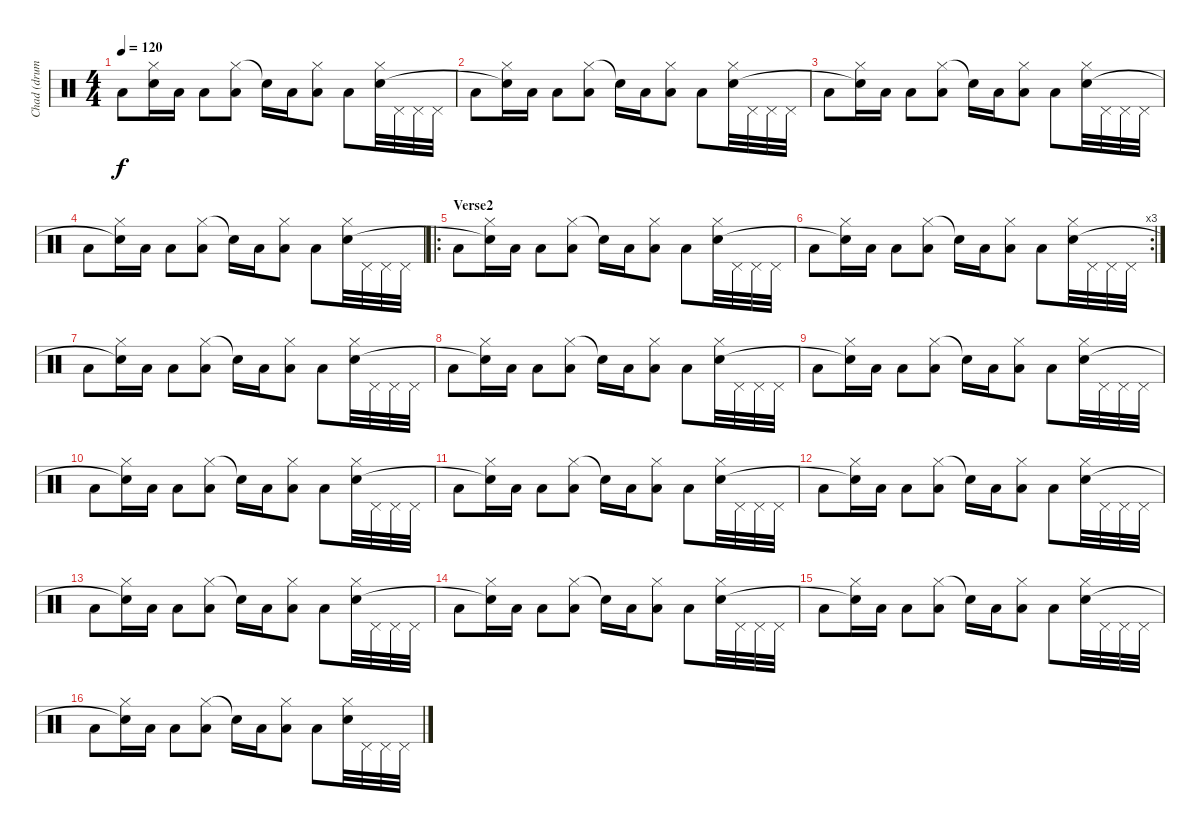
\track ("Chad (drums)" "Chad (drum") {instrument percussion}
\staff {score}
\articulation defaults
\ts (4 4)
\tempo 120
\clef neutral
\ks c "Low Tom (hit)".8{dy f}
("Hi-Hat (closed)" "Snare (hit)"{t}).16 "Low Tom (hit)".16 "Low Floor Tom (hit)".8 ("Hi-Hat (closed)" "Low Tom (hit)").8 "Snare (hit)"{t}.16 "Low Tom (hit)".16 ("Hi-Hat (closed)" "Low Floor Tom (hit)").8 "Low Tom (hit)".8 ("Hi-Hat (closed)" "Snare (hit) 2").32 "Pedal Hi-Hat (hit)".32 "Pedal Hi-Hat (hit)".32 "Pedal Hi-Hat (hit)".32 |
"Low Tom (hit)".8 ("Hi-Hat (closed)" "Snare (hit)"{t}).16 "Low Tom (hit)".16 "Low Floor Tom (hit)".8 ("Hi-Hat (closed)" "Low Tom (hit)").8 "Snare (hit)"{t}.16 "Low Tom (hit)".16 ("Hi-Hat (closed)" "Low Floor Tom (hit)").8 "Low Tom (hit)".8 ("Hi-Hat (closed)" "Snare (hit) 2").32 "Pedal Hi-Hat (hit)".32 "Pedal Hi-Hat (hit)".32 "Pedal Hi-Hat (hit)".32 |
"Low Tom (hit)".8 ("Hi-Hat (closed)" "Snare (hit)"{t}).16 "Low Tom (hit)".16 "Low Floor Tom (hit)".8 ("Hi-Hat (closed)" "Low Tom (hit)").8 "Snare (hit)"{t}.16 "Low Tom (hit)".16 ("Hi-Hat (closed)" "Low Floor Tom (hit)").8 "Low Tom (hit)".8 ("Hi-Hat (closed)" "Snare (hit) 2").32 "Pedal Hi-Hat (hit)".32 "Pedal Hi-Hat (hit)".32 "Pedal Hi-Hat (hit)".32 |
"Low Tom (hit)".8 ("Hi-Hat (closed)" "Snare (hit)"{t}).16 "Low Tom (hit)".16 "Low Floor Tom (hit)".8 ("Hi-Hat (closed)" "Low Tom (hit)").8 "Snare (hit)"{t}.16 "Low Tom (hit)".16 ("Hi-Hat (closed)" "Low Floor Tom (hit)").8 "Low Tom (hit)".8 ("Hi-Hat (closed)" "Snare (hit) 2").32 "Pedal Hi-Hat (hit)".32 "Pedal Hi-Hat (hit)".32 "Pedal Hi-Hat (hit)".32 |
\ro
\section ("" "Verse2")
"Low Tom (hit)".8 ("Hi-Hat (closed)" "Snare (hit)"{t}).16 "Low Tom (hit)".16 "Low Floor Tom (hit)".8 ("Hi-Hat (closed)" "Low Tom (hit)").8 "Snare (hit)"{t}.16 "Low Tom (hit)".16 ("Hi-Hat (closed)" "Low Floor Tom (hit)").8 "Low Tom (hit)".8 ("Hi-Hat (closed)" "Snare (hit) 2").32 "Pedal Hi-Hat (hit)".32 "Pedal Hi-Hat (hit)".32 "Pedal Hi-Hat (hit)".32 |
\rc 3 "Low Tom (hit)".8
("Hi-Hat (closed)" "Snare (hit)"{t}).16 "Low Tom (hit)".16 "Low Floor Tom (hit)".8 ("Hi-Hat (closed)" "Low Tom (hit)").8 "Snare (hit)"{t}.16 "Low Tom (hit)".16 ("Hi-Hat (closed)" "Low Floor Tom (hit)").8 "Low Tom (hit)".8 ("Hi-Hat (closed)" "Snare (hit) 2").32 "Pedal Hi-Hat (hit)".32 "Pedal Hi-Hat (hit)".32 "Pedal Hi-Hat (hit)".32 |
"Low Tom (hit)".8 ("Hi-Hat (closed)" "Snare (hit)"{t}).16 "Low Tom (hit)".16 "Low Floor Tom (hit)".8 ("Hi-Hat (closed)" "Low Tom (hit)").8 "Snare (hit)"{t}.16 "Low Tom (hit)".16 ("Hi-Hat (closed)" "Low Floor Tom (hit)").8 "Low Tom (hit)".8 ("Hi-Hat (closed)" "Snare (hit) 2").32 "Pedal Hi-Hat (hit)".32 "Pedal Hi-Hat (hit)".32 "Pedal Hi-Hat (hit)".32 |
"Low Tom (hit)".8 ("Hi-Hat (closed)" "Snare (hit)"{t}).16 "Low Tom (hit)".16 "Low Floor Tom (hit)".8 ("Hi-Hat (closed)" "Low Tom (hit)").8 "Snare (hit)"{t}.16 "Low Tom (hit)".16 ("Hi-Hat (closed)" "Low Floor Tom (hit)").8 "Low Tom (hit)".8 ("Hi-Hat (closed)" "Snare (hit) 2").32 "Pedal Hi-Hat (hit)".32 "Pedal Hi-Hat (hit)".32 "Pedal Hi-Hat (hit)".32 |
"Low Tom (hit)".8 ("Hi-Hat (closed)" "Snare (hit)"{t}).16 "Low Tom (hit)".16 "Low Floor Tom (hit)".8 ("Hi-Hat (closed)" "Low Tom (hit)").8 "Snare (hit)"{t}.16 "Low Tom (hit)".16 ("Hi-Hat (closed)" "Low Floor Tom (hit)").8 "Low Tom (hit)".8 ("Hi-Hat (closed)" "Snare (hit) 2").32 "Pedal Hi-Hat (hit)".32 "Pedal Hi-Hat (hit)".32 "Pedal Hi-Hat (hit)".32 |
"Low Tom (hit)".8 ("Hi-Hat (closed)" "Snare (hit)"{t}).16 "Low Tom (hit)".16 "Low Floor Tom (hit)".8 ("Hi-Hat (closed)" "Low Tom (hit)").8 "Snare (hit)"{t}.16 "Low Tom (hit)".16 ("Hi-Hat (closed)" "Low Floor Tom (hit)").8 "Low Tom (hit)".8 ("Hi-Hat (closed)" "Snare (hit) 2").32 "Pedal Hi-Hat (hit)".32 "Pedal Hi-Hat (hit)".32 "Pedal Hi-Hat (hit)".32 |
"Low Tom (hit)".8 ("Hi-Hat (closed)" "Snare (hit)"{t}).16 "Low Tom (hit)".16 "Low Floor Tom (hit)".8 ("Hi-Hat (closed)" "Low Tom (hit)").8 "Snare (hit)"{t}.16 "Low Tom (hit)".16 ("Hi-Hat (closed)" "Low Floor Tom (hit)").8 "Low Tom (hit)".8 ("Hi-Hat (closed)" "Snare (hit) 2").32 "Pedal Hi-Hat (hit)".32 "Pedal Hi-Hat (hit)".32 "Pedal Hi-Hat (hit)".32 |
"Low Tom (hit)".8 ("Hi-Hat (closed)" "Snare (hit)"{t}).16 "Low Tom (hit)".16 "Low Floor Tom (hit)".8 ("Hi-Hat (closed)" "Low Tom (hit)").8 "Snare (hit)"{t}.16 "Low Tom (hit)".16 ("Hi-Hat (closed)" "Low Floor Tom (hit)").8 "Low Tom (hit)".8 ("Hi-Hat (closed)" "Snare (hit) 2").32 "Pedal Hi-Hat (hit)".32 "Pedal Hi-Hat (hit)".32 "Pedal Hi-Hat (hit)".32 |
"Low Tom (hit)".8 ("Hi-Hat (closed)" "Snare (hit)"{t}).16 "Low Tom (hit)".16 "Low Floor Tom (hit)".8 ("Hi-Hat (closed)" "Low Tom (hit)").8 "Snare (hit)"{t}.16 "Low Tom (hit)".16 ("Hi-Hat (closed)" "Low Floor Tom (hit)").8 "Low Tom (hit)".8 ("Hi-Hat (closed)" "Snare (hit) 2").32 "Pedal Hi-Hat (hit)".32 "Pedal Hi-Hat (hit)".32 "Pedal Hi-Hat (hit)".32 |
"Low Tom (hit)".8 ("Hi-Hat (closed)" "Snare (hit)"{t}).16 "Low Tom (hit)".16 "Low Floor Tom (hit)".8 ("Hi-Hat (closed)" "Low Tom (hit)").8 "Snare (hit)"{t}.16 "Low Tom (hit)".16 ("Hi-Hat (closed)" "Low Floor Tom (hit)").8 "Low Tom (hit)".8 ("Hi-Hat (closed)" "Snare (hit) 2").32 "Pedal Hi-Hat (hit)".32 "Pedal Hi-Hat (hit)".32 "Pedal Hi-Hat (hit)".32 |
"Low Tom (hit)".8 ("Hi-Hat (closed)" "Snare (hit)"{t}).16 "Low Tom (hit)".16 "Low Floor Tom (hit)".8 ("Hi-Hat (closed)" "Low Tom (hit)").8 "Snare (hit)"{t}.16 "Low Tom (hit)".16 ("Hi-Hat (closed)" "Low Floor Tom (hit)").8 "Low Tom (hit)".8 ("Hi-Hat (closed)" "Snare (hit) 2").32 "Pedal Hi-Hat (hit)".32 "Pedal Hi-Hat (hit)".32 "Pedal Hi-Hat (hit)".32 |
"Low Tom (hit)".8 ("Hi-Hat (closed)" "Snare (hit)"{t}).16 "Low Tom (hit)".16 "Low Floor Tom (hit)".8 ("Hi-Hat (closed)" "Low Tom (hit)").8 "Snare (hit)"{t}.16 "Low Tom (hit)".16 ("Hi-Hat (closed)" "Low Floor Tom (hit)").8 "Low Tom (hit)".8 ("Hi-Hat (closed)" "Snare (hit) 2").32 "Pedal Hi-Hat (hit)".32 "Pedal Hi-Hat (hit)".32 "Pedal Hi-Hat (hit)".32
